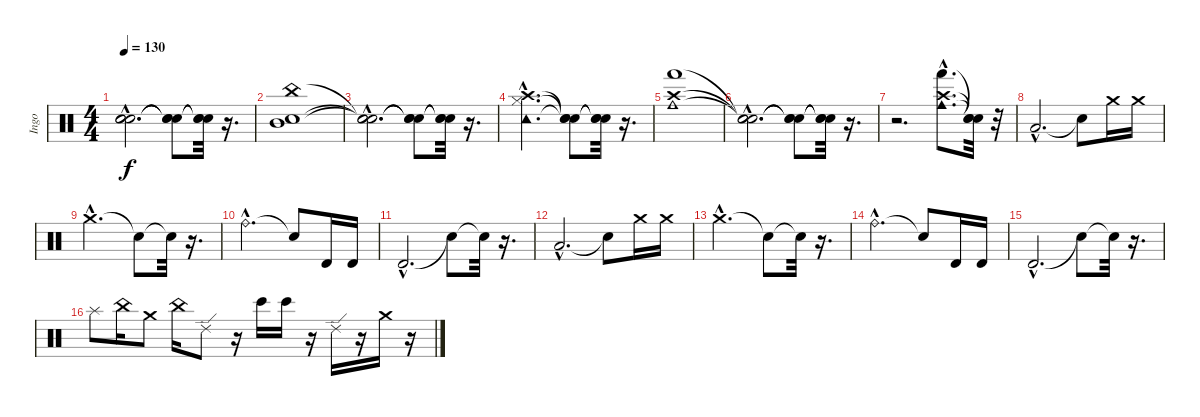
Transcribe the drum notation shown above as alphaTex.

\track ("Ingo" "Ingo") {instrument percussion}
\staff {score}
\articulation defaults
\ts (4 4)
\tempo 130
\clef neutral
\ks c
("Snare (hit)"{hac t} "Snare (hit)"{hac t} "Snare (hit)"{hac t}).2{d dy f} ("Snare (hit)"{t} "Snare (hit)"{t} "Snare (hit)"{t}).8 ("Snare (hit)"{t} "Snare (hit)"{t} "Snare (hit)"{t}).32 r.16{d} |
("China (hit)" "Electric Snare (hit)" "Mid Tom (hit)").1 |
("Snare (hit)"{hac t} "Snare (hit)"{hac t} "Snare (hit)"{hac t}).2{d} ("Snare (hit)"{t} "Snare (hit)"{t} "Snare (hit)"{t}).8 ("Snare (hit)"{t} "Snare (hit)"{t} "Snare (hit)"{t}).32 r.16{d} |
("Tambourine (hit)"{hac} "Hi-Hat (closed)"{hac} "Crash high (hit)"{hac}).2{d} ("Snare (hit)"{t} "Snare (hit)"{t} "Snare (hit)"{t}).8 ("Snare (hit)"{t} "Snare (hit)"{t} "Snare (hit)"{t}).32 r.16{d} |
("Hand (hit)" "Crash high (hit)" "Cowbell medium (hit)").1 |
("Snare (hit)"{hac t} "Snare (hit)"{hac t} "Snare (hit)"{hac t}).2{d} ("Snare (hit)"{t} "Snare (hit)"{t} "Snare (hit)"{t}).8 ("Snare (hit)"{t} "Snare (hit)"{t} "Snare (hit)"{t}).32 r.16{d} |
r.2{d} ("Hand (hit)"{hac} "Crash high (hit)"{hac} "Cowbell medium (hit)"{hac}).8{d} ("Snare (hit)"{t} "Snare (hit)"{t} "Snare (hit)"{t}).32 r.32 |
"Low Tom (hit)"{hac}.2{d} "Snare (hit)"{t}.8 "Crash medium (hit)".16 "Crash medium (hit)".16 |
"Crash medium (hit)"{hac}.2{d} "Snare (hit)"{t}.8 "Snare (hit)"{t}.32 r.16{d} |
"Ride (bell)"{hac}.2{d} "Snare (hit)"{t}.8 "Timbale high (hit)".16 "Timbale high (hit)".16 |
"Timbale high (hit)"{hac}.2{d} "Snare (hit)"{t}.8 "Snare (hit)"{t}.32 r.16{d} |
"Low Tom (hit)"{hac}.2{d} "Snare (hit)"{t}.8 "Crash medium (hit)".16 "Crash medium (hit)".16 |
"Crash medium (hit)"{hac}.2{d} "Snare (hit)"{t}.8 "Snare (hit)"{t}.32 r.16{d} |
"Ride (bell)"{hac}.2{d} "Snare (hit)"{t}.8 "Timbale high (hit)".16 "Timbale high (hit)".16 |
"Timbale high (hit)"{hac}.2{d} "Snare (hit)"{t}.8 "Snare (hit)"{t}.32 r.16{d} |
"Splash (hit)".8 "China (hit)".16{volume 10} "Crash medium (hit)".8 "China (hit)".16 "Ride (edge) 2".8 r.16 "Bongo High (hit)".16 "Bongo High (hit)".16 r.16 "Ride (edge) 2".16 r.16 "Crash medium (hit)".16 r.16
